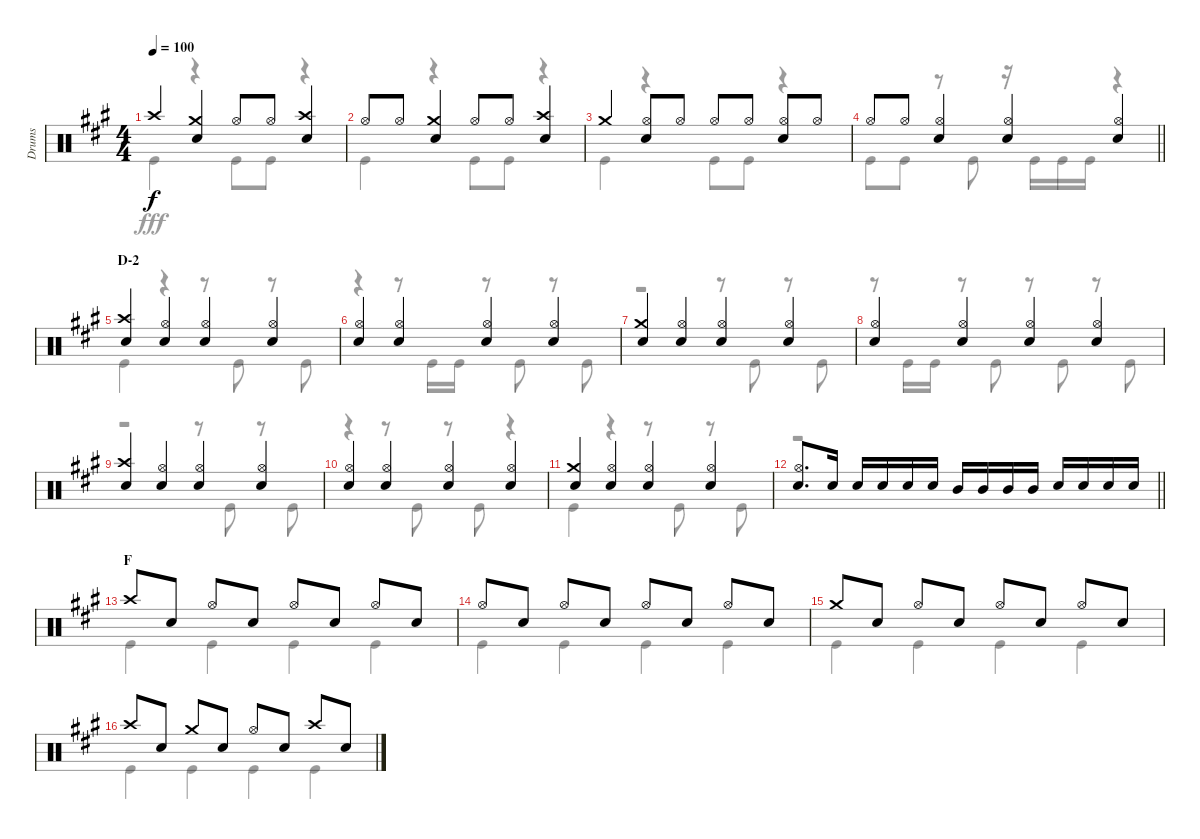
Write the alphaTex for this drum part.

\track ("Drums" "Drums") {instrument percussion}
\staff {score}
\articulation defaults
\voice
\ts (4 4)
\tempo 100
\clef neutral
\ks a "Crash high (hit)".4{dy f}
("Crash medium (hit)" "Snare (hit) 2").4 "Hi-Hat (open)".8 "Hi-Hat (open)".8 ("Crash high (hit)" "Snare (hit) 2").4 |
"Hi-Hat (open)".8 "Hi-Hat (open)".8 ("Crash medium (hit)" "Snare (hit) 2").4 "Hi-Hat (open)".8 "Hi-Hat (open)".8 ("Crash high (hit)" "Snare (hit) 2").4 |
"Crash medium (hit)".4 ("Hi-Hat (open)" "Snare (hit) 2").8 "Hi-Hat (open)".8 "Hi-Hat (open)".8 "Hi-Hat (open)".8 ("Hi-Hat (open)" "Snare (hit) 2").8 "Hi-Hat (open)".8 |
\barLineRight lightlight "Hi-Hat (open)".8 "Hi-Hat (open)".8
("Hi-Hat (open)" "Snare (hit) 2").4 ("Hi-Hat (open)" "Snare (hit) 2").4 ("Hi-Hat (open)" "Snare (hit) 2").4 |
\section ("" "D-2")
("Crash high (hit)" "Snare (hit) 2").4 ("Hi-Hat (open)" "Snare (hit) 2").4 ("Hi-Hat (open)" "Snare (hit) 2").4 ("Hi-Hat (open)" "Snare (hit) 2").4 |
("Hi-Hat (open)" "Snare (hit) 2").4 ("Hi-Hat (open)" "Snare (hit) 2").4 ("Hi-Hat (open)" "Snare (hit) 2").4 ("Hi-Hat (open)" "Snare (hit) 2").4 |
("Crash medium (hit)" "Snare (hit) 2").4 ("Hi-Hat (open)" "Snare (hit) 2").4 ("Hi-Hat (open)" "Snare (hit) 2").4 ("Hi-Hat (open)" "Snare (hit) 2").4 |
("Hi-Hat (open)" "Snare (hit) 2").4 ("Hi-Hat (open)" "Snare (hit) 2").4 ("Hi-Hat (open)" "Snare (hit) 2").4 ("Hi-Hat (open)" "Snare (hit) 2").4 |
("Crash high (hit)" "Snare (hit) 2").4 ("Hi-Hat (open)" "Snare (hit) 2").4 ("Hi-Hat (open)" "Snare (hit) 2").4 ("Hi-Hat (open)" "Snare (hit) 2").4 |
("Hi-Hat (open)" "Snare (hit) 2").4 ("Hi-Hat (open)" "Snare (hit) 2").4 ("Hi-Hat (open)" "Snare (hit) 2").4 ("Hi-Hat (open)" "Snare (hit) 2").4 |
("Crash medium (hit)" "Snare (hit) 2").4 ("Hi-Hat (open)" "Snare (hit) 2").4 ("Hi-Hat (open)" "Snare (hit) 2").4 ("Hi-Hat (open)" "Snare (hit) 2").4 |
\barLineRight lightlight
("Hi-Hat (open)" "Snare (hit) 2").8{d} "Snare (hit) 2".16 "Snare (hit) 2".16 "Snare (hit) 2".16 "Snare (hit) 2".16 "Snare (hit) 2".16 "Mid Tom (hit)".16 "Mid Tom (hit)".16 "Mid Tom (hit)".16 "Mid Tom (hit)".16 "Snare (hit) 2".16 "Snare (hit) 2".16 "Snare (hit) 2".16 "Snare (hit) 2".16 |
\section ("" "F")
"Crash high (hit)".8 "Snare (hit) 2".8 "Hi-Hat (open)".8 "Snare (hit) 2".8 "Hi-Hat (open)".8 "Snare (hit) 2".8 "Hi-Hat (open)".8 "Snare (hit) 2".8 |
"Hi-Hat (open)".8 "Snare (hit) 2".8 "Hi-Hat (open)".8 "Snare (hit) 2".8 "Hi-Hat (open)".8 "Snare (hit) 2".8 "Hi-Hat (open)".8 "Snare (hit) 2".8 |
"Crash medium (hit)".8 "Snare (hit) 2".8 "Hi-Hat (open)".8 "Snare (hit) 2".8 "Hi-Hat (open)".8 "Snare (hit) 2".8 "Hi-Hat (open)".8 "Snare (hit) 2".8 |
"Crash high (hit)".8 "Snare (hit) 2".8 "Crash medium (hit)".8 "Snare (hit) 2".8 "Hi-Hat (open)".8 "Snare (hit) 2".8 "Crash high (hit)".8 "Snare (hit) 2".8
\voice
\clef neutral
\ottava regular
\simile none
\ks a "Kick (hit)".4{dy fff}
r.4 "Kick (hit)".8 "Kick (hit)".8 r.4 |
"Kick (hit)".4 r.4 "Kick (hit)".8 "Kick (hit)".8 r.4 |
"Kick (hit)".4 r.4 "Kick (hit)".8 "Kick (hit)".8 r.4 |
\barLineRight lightlight "Kick (hit)".8 "Kick (hit)".8
r.8 "Kick (hit)".8 r.16 "Kick (hit)".16 "Kick (hit)".16 "Kick (hit)".16 r.4 |
"Kick (hit)".4 r.4 r.8 "Kick (hit)".8 r.8 "Kick (hit)".8 |
r.4 r.8 "Kick (hit)".16 "Kick (hit)".16 r.8 "Kick (hit)".8 r.8 "Kick (hit)".8 |
r.2 r.8 "Kick (hit)".8 r.8 "Kick (hit)".8 |
r.8 "Kick (hit)".16 "Kick (hit)".16 r.8 "Kick (hit)".8 r.8 "Kick (hit)".8 r.8 "Kick (hit)".8 |
r.2 r.8 "Kick (hit)".8 r.8 "Kick (hit)".8 |
r.4 r.8 "Kick (hit)".8 r.8 "Kick (hit)".8 r.4 |
"Kick (hit)".4 r.4 r.8 "Kick (hit)".8 r.8 "Kick (hit)".8 |
\barLineRight lightlight
r.1 |
"Kick (hit)".4 "Kick (hit)".4 "Kick (hit)".4 "Kick (hit)".4 |
"Kick (hit)".4 "Kick (hit)".4 "Kick (hit)".4 "Kick (hit)".4 |
"Kick (hit)".4 "Kick (hit)".4 "Kick (hit)".4 "Kick (hit)".4 |
"Kick (hit)".4 "Kick (hit)".4 "Kick (hit)".4 "Kick (hit)".4
